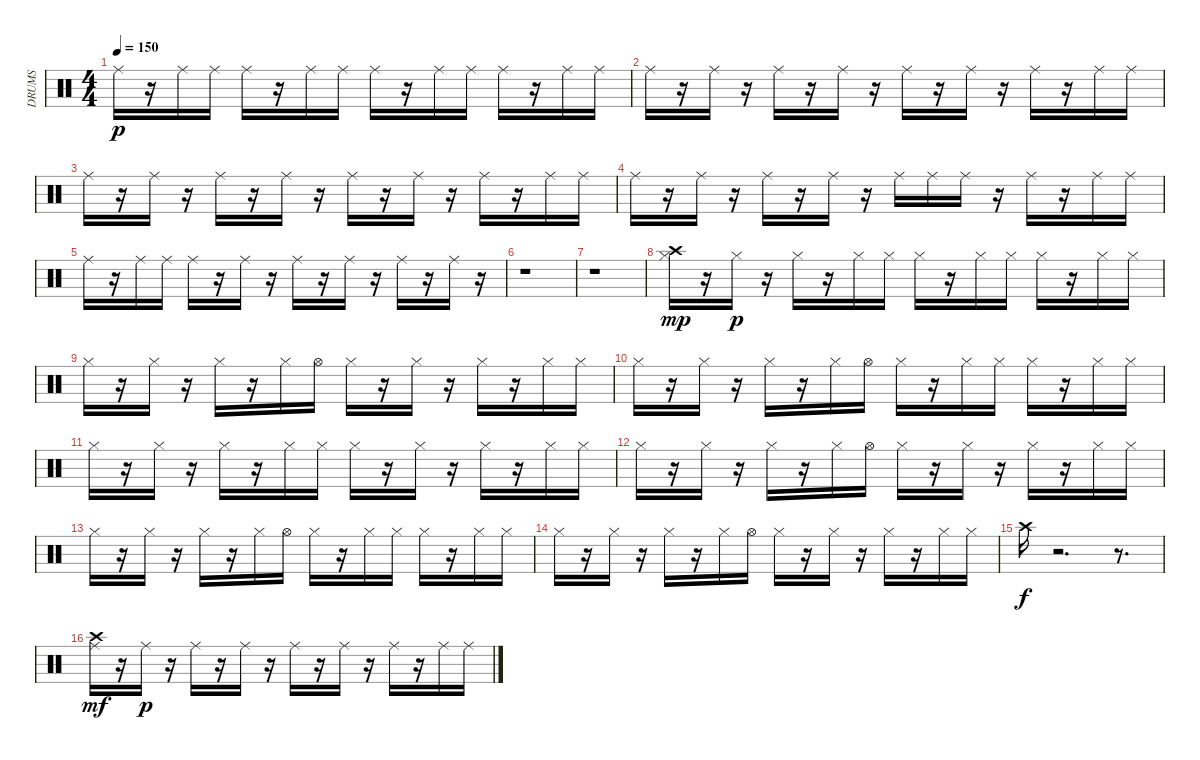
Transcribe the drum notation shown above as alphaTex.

\track ("DRUMS" "DRUMS") {instrument percussion}
\staff {score}
\articulation defaults
\ts (4 4)
\tempo 150
\clef neutral
\ks c "Ride (middle)".16{dy p}
r.16 "Ride (middle)".16 "Ride (middle)".16 "Ride (middle)".16 r.16 "Ride (middle)".16 "Ride (middle)".16 "Ride (middle)".16 r.16 "Ride (middle)".16 "Ride (middle)".16 "Ride (middle)".16 r.16 "Ride (middle)".16 "Ride (middle)".16 |
"Ride (middle)".16 r.16 "Ride (middle)".16 r.16 "Ride (middle)".16 r.16 "Ride (middle)".16 r.16 "Ride (middle)".16 r.16 "Ride (middle)".16 r.16 "Ride (middle)".16 r.16 "Ride (middle)".16 "Ride (middle)".16 |
"Ride (middle)".16 r.16 "Ride (middle)".16 r.16 "Ride (middle)".16 r.16 "Ride (middle)".16 r.16 "Ride (middle)".16 r.16 "Ride (middle)".16 r.16 "Ride (middle)".16 r.16 "Ride (middle)".16 "Ride (middle)".16 |
"Ride (middle)".16 r.16 "Ride (middle)".16 r.16 "Ride (middle)".16 r.16 "Ride (middle)".16 r.16 "Ride (middle)".16 "Ride (middle)".16 "Ride (middle)".16 r.16 "Ride (middle)".16 r.16 "Ride (middle)".16 "Ride (middle)".16 |
"Ride (middle)".16 r.16 "Ride (middle)".16 "Ride (middle)".16 "Ride (middle)".16 r.16 "Ride (middle)".16 r.16 "Ride (middle)".16 r.16 "Ride (middle)".16 r.16 "Ride (middle)".16 r.16 "Ride (middle)".16 r.16 |
r.1 |
r.1 |
("Hi-Hat (closed)" "Crash high (hit)").16{dy mp} r.16 "Hi-Hat (closed)".16{dy p} r.16 "Hi-Hat (closed)".16 r.16 "Hi-Hat (closed)".16 "Hi-Hat (closed)".16 "Hi-Hat (closed)".16 r.16 "Hi-Hat (closed)".16 "Hi-Hat (closed)".16 "Hi-Hat (closed)".16 r.16 "Hi-Hat (closed)".16 "Hi-Hat (closed)".16 |
"Hi-Hat (closed)".16 r.16 "Hi-Hat (closed)".16 r.16 "Hi-Hat (closed)".16 r.16 "Hi-Hat (closed)".16 "Hi-Hat (open)".16 "Hi-Hat (closed)".16 r.16 "Hi-Hat (closed)".16 r.16 "Hi-Hat (closed)".16 r.16 "Hi-Hat (closed)".16 "Hi-Hat (closed)".16 |
"Hi-Hat (closed)".16 r.16 "Hi-Hat (closed)".16 r.16 "Hi-Hat (closed)".16 r.16 "Hi-Hat (closed)".16 "Hi-Hat (open)".16 "Hi-Hat (closed)".16 r.16 "Hi-Hat (closed)".16 "Hi-Hat (closed)".16 "Hi-Hat (closed)".16 r.16 "Hi-Hat (closed)".16 "Hi-Hat (closed)".16 |
"Hi-Hat (closed)".16 r.16 "Hi-Hat (closed)".16 r.16 "Hi-Hat (closed)".16 r.16 "Hi-Hat (closed)".16 "Hi-Hat (closed)".16 "Hi-Hat (closed)".16 r.16 "Hi-Hat (closed)".16 r.16 "Hi-Hat (closed)".16 r.16 "Hi-Hat (closed)".16 "Hi-Hat (closed)".16 |
"Hi-Hat (closed)".16 r.16 "Hi-Hat (closed)".16 r.16 "Hi-Hat (closed)".16 r.16 "Hi-Hat (closed)".16 "Hi-Hat (open)".16 "Hi-Hat (closed)".16 r.16 "Hi-Hat (closed)".16 r.16 "Hi-Hat (closed)".16 r.16 "Hi-Hat (closed)".16 "Hi-Hat (closed)".16 |
"Hi-Hat (closed)".16 r.16 "Hi-Hat (closed)".16 r.16 "Hi-Hat (closed)".16 r.16 "Hi-Hat (closed)".16 "Hi-Hat (open)".16 "Hi-Hat (closed)".16 r.16 "Hi-Hat (closed)".16 "Hi-Hat (closed)".16 "Hi-Hat (closed)".16 r.16 "Hi-Hat (closed)".16 "Hi-Hat (closed)".16 |
"Hi-Hat (closed)".16 r.16 "Hi-Hat (closed)".16 r.16 "Hi-Hat (closed)".16 r.16 "Hi-Hat (closed)".16 "Hi-Hat (open)".16 "Hi-Hat (closed)".16 r.16 "Hi-Hat (closed)".16 r.16 "Hi-Hat (closed)".16 r.16 "Hi-Hat (closed)".16 "Hi-Hat (closed)".16 |
"Crash high (hit)".16{dy f} r.2{d} r.8{d} |
("Ride (middle)" "Crash high (hit)").16{dy mf} r.16 "Ride (middle)".16{dy p} r.16 "Ride (middle)".16 r.16 "Ride (middle)".16 r.16 "Ride (middle)".16 r.16 "Ride (middle)".16 r.16 "Ride (middle)".16 r.16 "Ride (middle)".16 "Ride (middle)".16
